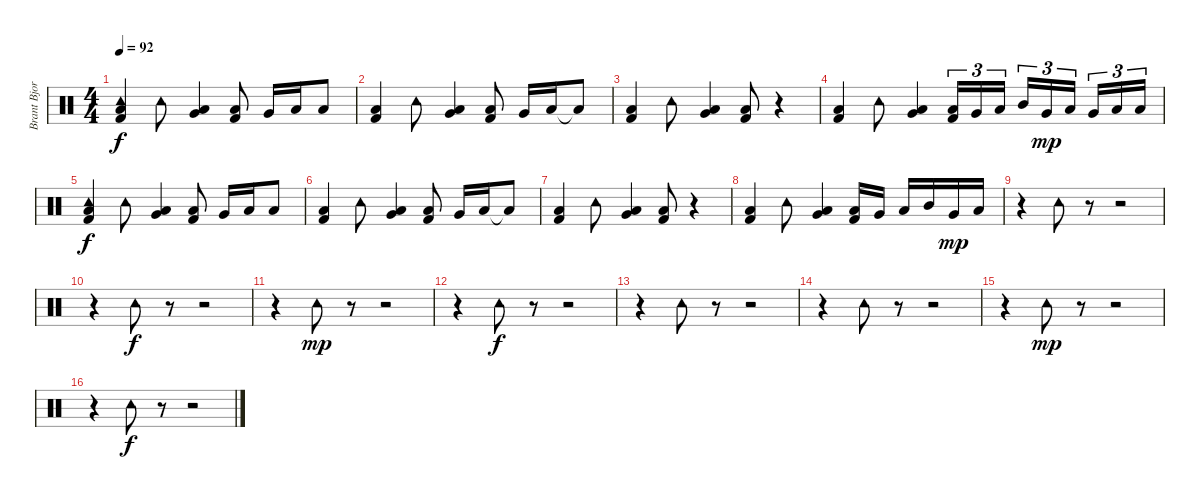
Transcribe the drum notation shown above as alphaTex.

\track ("Brant Bjork - Drums" "Brant Bjor") {instrument percussion}
\staff {score}
\articulation defaults
\ts (4 4)
\tempo 92
\clef neutral
\ks c
("Tambourine (hit)" "Low Floor Tom (hit)" "Kick (hit) 2").4{dy f} "Tambourine (hit)".8 ("Low Floor Tom (hit)" "Very Low Tom (hit)").4 ("Low Floor Tom (hit)" "Kick (hit) 2").8 "Very Low Tom (hit)".16 "Low Floor Tom (hit)".16 "Low Floor Tom (hit)".8 |
("Low Floor Tom (hit)" "Kick (hit) 2").4 "Tambourine (hit)".8 ("Low Floor Tom (hit)" "Very Low Tom (hit)").4 ("Low Floor Tom (hit)" "Kick (hit) 2").8 "Very Low Tom (hit)".16 "Low Floor Tom (hit)".16 "Low Floor Tom (hit)"{t}.8 |
("Low Floor Tom (hit)" "Kick (hit) 2").4 "Tambourine (hit)".8 ("Low Floor Tom (hit)" "Very Low Tom (hit)").4 ("Low Floor Tom (hit)" "Kick (hit) 2").8 r.4 |
("Low Floor Tom (hit)" "Kick (hit) 2").4 "Tambourine (hit)".8 ("Low Floor Tom (hit)" "Very Low Tom (hit)").4 ("Low Floor Tom (hit)" "Kick (hit) 2").16{tu (3 2)} "Very Low Tom (hit)".16{tu (3 2)} "Low Tom (hit)".16{tu (3 2)} "Mid Tom (hit)".16{tu (3 2)} "Very Low Tom (hit)".16{tu (3 2) dy mp} "Low Tom (hit)".16{tu (3 2) beam splitsecondary} "Very Low Tom (hit)".16{tu (3 2)} "Low Floor Tom (hit)".16{tu (3 2)} "Low Tom (hit)".16{tu (3 2)} |
("Tambourine (hit)" "Low Floor Tom (hit)" "Kick (hit) 2").4{dy f} "Tambourine (hit)".8 ("Low Floor Tom (hit)" "Very Low Tom (hit)").4 ("Low Floor Tom (hit)" "Kick (hit) 2").8 "Very Low Tom (hit)".16 "Low Floor Tom (hit)".16 "Low Floor Tom (hit)".8 |
("Low Floor Tom (hit)" "Kick (hit) 2").4 "Tambourine (hit)".8 ("Low Floor Tom (hit)" "Very Low Tom (hit)").4 ("Low Floor Tom (hit)" "Kick (hit) 2").8 "Very Low Tom (hit)".16 "Low Floor Tom (hit)".16 "Low Floor Tom (hit)"{t}.8 |
("Low Floor Tom (hit)" "Kick (hit) 2").4 "Tambourine (hit)".8 ("Low Floor Tom (hit)" "Very Low Tom (hit)").4 ("Low Floor Tom (hit)" "Kick (hit) 2").8 r.4 |
("Low Floor Tom (hit)" "Kick (hit) 2").4 "Tambourine (hit)".8 ("Low Floor Tom (hit)" "Very Low Tom (hit)").4 ("Low Floor Tom (hit)" "Kick (hit) 2").16 "Very Low Tom (hit)".16 "Low Tom (hit)".16 "Mid Tom (hit)".16 "Very Low Tom (hit)".16{dy mp} "Low Tom (hit)".16 |
r.4 "Tambourine (hit)".8 r.8 r.2 |
r.4 "Tambourine (hit)".8{dy f} r.8 r.2 |
r.4 "Tambourine (hit)".8{dy mp} r.8 r.2 |
r.4 "Tambourine (hit)".8{dy f} r.8 r.2 |
r.4 "Tambourine (hit)".8 r.8 r.2 |
r.4 "Tambourine (hit)".8 r.8 r.2 |
r.4 "Tambourine (hit)".8{dy mp} r.8 r.2 |
r.4 "Tambourine (hit)".8{dy f} r.8 r.2
